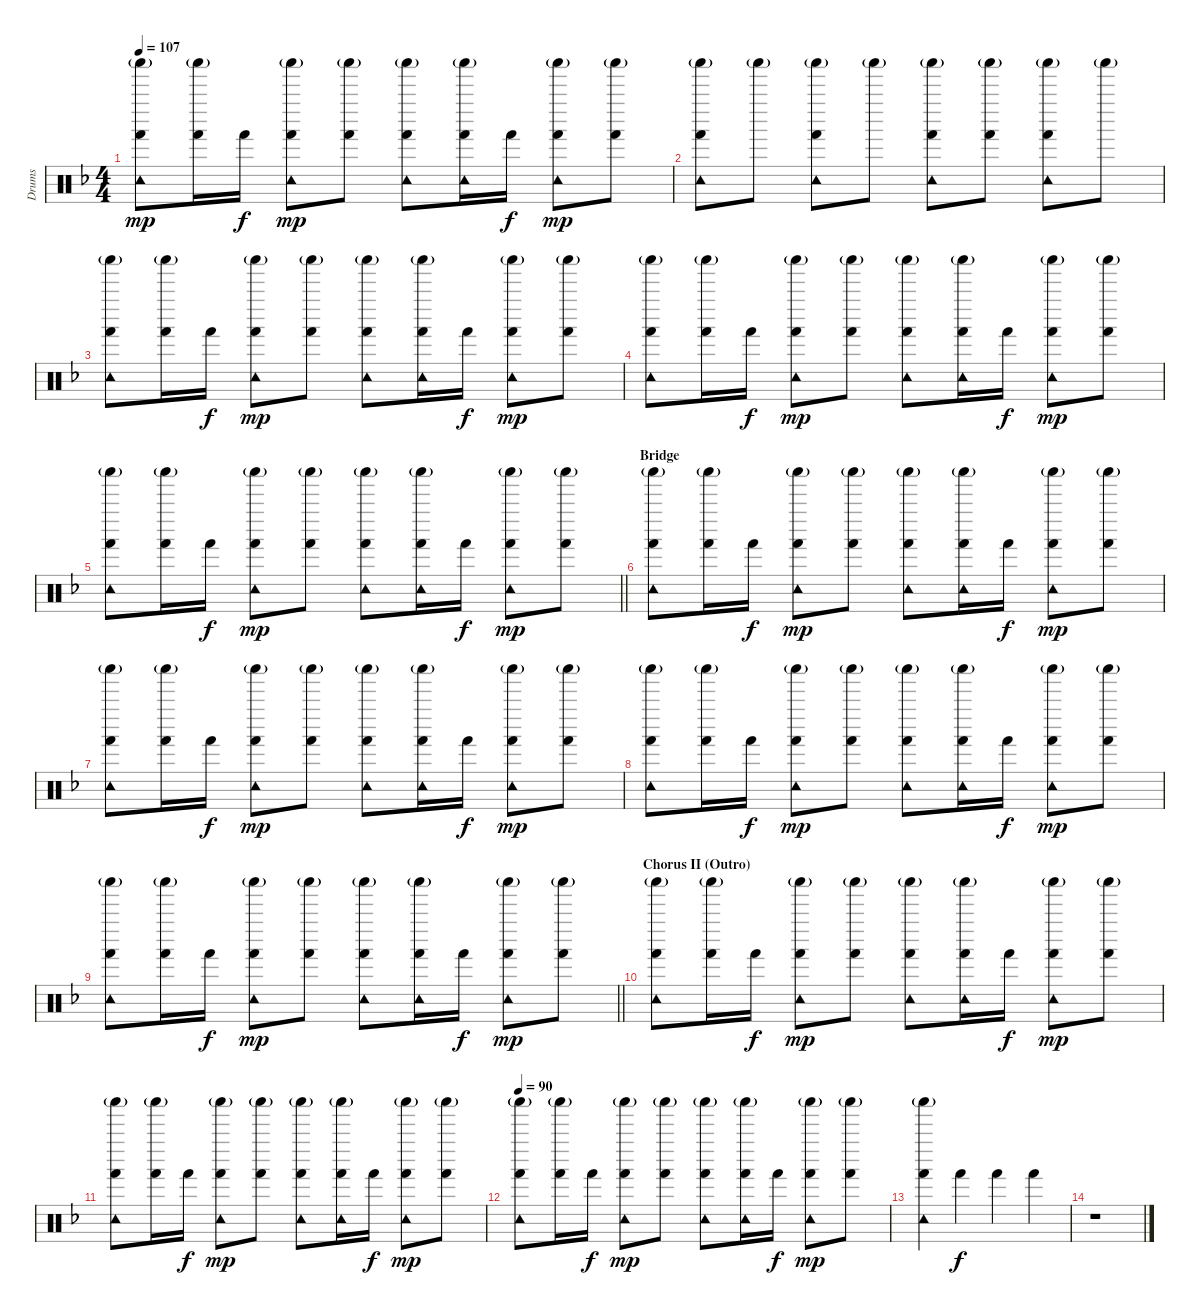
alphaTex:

\track ("Drums" "Drums") {instrument percussion}
\staff {score}
\articulation defaults
\ts (4 4)
\tempo 107
\clef neutral
\ks f
("Tambourine (hit)" "Shaker (hit)"{g} "Hand (hit)").8{dy mp} ("Shaker (hit)"{g} "Hand (hit)").16 "Hand (hit)".16{dy f} ("Tambourine (hit)" "Shaker (hit)"{g} "Hand (hit)").8{dy mp} ("Shaker (hit)"{g} "Hand (hit)").8 ("Tambourine (hit)" "Shaker (hit)"{g} "Hand (hit)").8 ("Tambourine (hit)" "Shaker (hit)"{g} "Hand (hit)").16 "Hand (hit)".16{dy f} ("Tambourine (hit)" "Shaker (hit)"{g} "Hand (hit)").8{dy mp} ("Shaker (hit)"{g} "Hand (hit)").8 |
("Tambourine (hit)" "Shaker (hit)"{g} "Hand (hit)").8 "Shaker (hit)"{g}.8 ("Tambourine (hit)" "Shaker (hit)"{g} "Hand (hit)").8 "Shaker (hit)"{g}.8 ("Tambourine (hit)" "Shaker (hit)"{g} "Hand (hit)").8 ("Shaker (hit)"{g} "Hand (hit)").8 ("Tambourine (hit)" "Shaker (hit)"{g} "Hand (hit)").8 "Shaker (hit)"{g}.8 |
("Tambourine (hit)" "Shaker (hit)"{g} "Hand (hit)").8 ("Shaker (hit)"{g} "Hand (hit)").16 "Hand (hit)".16{dy f} ("Tambourine (hit)" "Shaker (hit)"{g} "Hand (hit)").8{dy mp} ("Shaker (hit)"{g} "Hand (hit)").8 ("Tambourine (hit)" "Shaker (hit)"{g} "Hand (hit)").8 ("Tambourine (hit)" "Shaker (hit)"{g} "Hand (hit)").16 "Hand (hit)".16{dy f} ("Tambourine (hit)" "Shaker (hit)"{g} "Hand (hit)").8{dy mp} ("Shaker (hit)"{g} "Hand (hit)").8 |
("Tambourine (hit)" "Shaker (hit)"{g} "Hand (hit)").8 ("Shaker (hit)"{g} "Hand (hit)").16 "Hand (hit)".16{dy f} ("Tambourine (hit)" "Shaker (hit)"{g} "Hand (hit)").8{dy mp} ("Shaker (hit)"{g} "Hand (hit)").8 ("Tambourine (hit)" "Shaker (hit)"{g} "Hand (hit)").8 ("Tambourine (hit)" "Shaker (hit)"{g} "Hand (hit)").16 "Hand (hit)".16{dy f} ("Tambourine (hit)" "Shaker (hit)"{g} "Hand (hit)").8{dy mp} ("Shaker (hit)"{g} "Hand (hit)").8 |
\barLineRight lightlight
("Tambourine (hit)" "Shaker (hit)"{g} "Hand (hit)").8 ("Shaker (hit)"{g} "Hand (hit)").16 "Hand (hit)".16{dy f} ("Tambourine (hit)" "Shaker (hit)"{g} "Hand (hit)").8{dy mp} ("Shaker (hit)"{g} "Hand (hit)").8 ("Tambourine (hit)" "Shaker (hit)"{g} "Hand (hit)").8 ("Tambourine (hit)" "Shaker (hit)"{g} "Hand (hit)").16 "Hand (hit)".16{dy f} ("Tambourine (hit)" "Shaker (hit)"{g} "Hand (hit)").8{dy mp} ("Shaker (hit)"{g} "Hand (hit)").8 |
\section ("" "Bridge")
("Tambourine (hit)" "Shaker (hit)"{g} "Hand (hit)").8 ("Shaker (hit)"{g} "Hand (hit)").16 "Hand (hit)".16{dy f} ("Tambourine (hit)" "Shaker (hit)"{g} "Hand (hit)").8{dy mp} ("Shaker (hit)"{g} "Hand (hit)").8 ("Tambourine (hit)" "Shaker (hit)"{g} "Hand (hit)").8 ("Tambourine (hit)" "Shaker (hit)"{g} "Hand (hit)").16 "Hand (hit)".16{dy f} ("Tambourine (hit)" "Shaker (hit)"{g} "Hand (hit)").8{dy mp} ("Shaker (hit)"{g} "Hand (hit)").8 |
("Tambourine (hit)" "Shaker (hit)"{g} "Hand (hit)").8 ("Shaker (hit)"{g} "Hand (hit)").16 "Hand (hit)".16{dy f} ("Tambourine (hit)" "Shaker (hit)"{g} "Hand (hit)").8{dy mp} ("Shaker (hit)"{g} "Hand (hit)").8 ("Tambourine (hit)" "Shaker (hit)"{g} "Hand (hit)").8 ("Tambourine (hit)" "Shaker (hit)"{g} "Hand (hit)").16 "Hand (hit)".16{dy f} ("Tambourine (hit)" "Shaker (hit)"{g} "Hand (hit)").8{dy mp} ("Shaker (hit)"{g} "Hand (hit)").8 |
("Tambourine (hit)" "Shaker (hit)"{g} "Hand (hit)").8 ("Shaker (hit)"{g} "Hand (hit)").16 "Hand (hit)".16{dy f} ("Tambourine (hit)" "Shaker (hit)"{g} "Hand (hit)").8{dy mp} ("Shaker (hit)"{g} "Hand (hit)").8 ("Tambourine (hit)" "Shaker (hit)"{g} "Hand (hit)").8 ("Tambourine (hit)" "Shaker (hit)"{g} "Hand (hit)").16 "Hand (hit)".16{dy f} ("Tambourine (hit)" "Shaker (hit)"{g} "Hand (hit)").8{dy mp} ("Shaker (hit)"{g} "Hand (hit)").8 |
\barLineRight lightlight
("Tambourine (hit)" "Shaker (hit)"{g} "Hand (hit)").8 ("Shaker (hit)"{g} "Hand (hit)").16 "Hand (hit)".16{dy f} ("Tambourine (hit)" "Shaker (hit)"{g} "Hand (hit)").8{dy mp} ("Shaker (hit)"{g} "Hand (hit)").8 ("Tambourine (hit)" "Shaker (hit)"{g} "Hand (hit)").8 ("Tambourine (hit)" "Shaker (hit)"{g} "Hand (hit)").16 "Hand (hit)".16{dy f} ("Tambourine (hit)" "Shaker (hit)"{g} "Hand (hit)").8{dy mp} ("Shaker (hit)"{g} "Hand (hit)").8 |
\section ("" "Chorus II (Outro)")
("Tambourine (hit)" "Shaker (hit)"{g} "Hand (hit)").8 ("Shaker (hit)"{g} "Hand (hit)").16 "Hand (hit)".16{dy f} ("Tambourine (hit)" "Shaker (hit)"{g} "Hand (hit)").8{dy mp} ("Shaker (hit)"{g} "Hand (hit)").8 ("Tambourine (hit)" "Shaker (hit)"{g} "Hand (hit)").8 ("Tambourine (hit)" "Shaker (hit)"{g} "Hand (hit)").16 "Hand (hit)".16{dy f} ("Tambourine (hit)" "Shaker (hit)"{g} "Hand (hit)").8{dy mp} ("Shaker (hit)"{g} "Hand (hit)").8 |
("Tambourine (hit)" "Shaker (hit)"{g} "Hand (hit)").8 ("Shaker (hit)"{g} "Hand (hit)").16 "Hand (hit)".16{dy f} ("Tambourine (hit)" "Shaker (hit)"{g} "Hand (hit)").8{dy mp} ("Shaker (hit)"{g} "Hand (hit)").8 ("Tambourine (hit)" "Shaker (hit)"{g} "Hand (hit)").8 ("Tambourine (hit)" "Shaker (hit)"{g} "Hand (hit)").16 "Hand (hit)".16{dy f} ("Tambourine (hit)" "Shaker (hit)"{g} "Hand (hit)").8{dy mp} ("Shaker (hit)"{g} "Hand (hit)").8 |
\tempo 90
("Tambourine (hit)" "Shaker (hit)"{g} "Hand (hit)").8 ("Shaker (hit)"{g} "Hand (hit)").16 "Hand (hit)".16{dy f} ("Tambourine (hit)" "Shaker (hit)"{g} "Hand (hit)").8{dy mp} ("Shaker (hit)"{g} "Hand (hit)").8 ("Tambourine (hit)" "Shaker (hit)"{g} "Hand (hit)").8 ("Tambourine (hit)" "Shaker (hit)"{g} "Hand (hit)").16 "Hand (hit)".16{dy f} ("Tambourine (hit)" "Shaker (hit)"{g} "Hand (hit)").8{dy mp} ("Shaker (hit)"{g} "Hand (hit)").8 |
("Tambourine (hit)" "Shaker (hit)"{g} "Hand (hit)").4 "Hand (hit)".4{dy f} "Hand (hit)".4 "Hand (hit)".4 |
r.1
